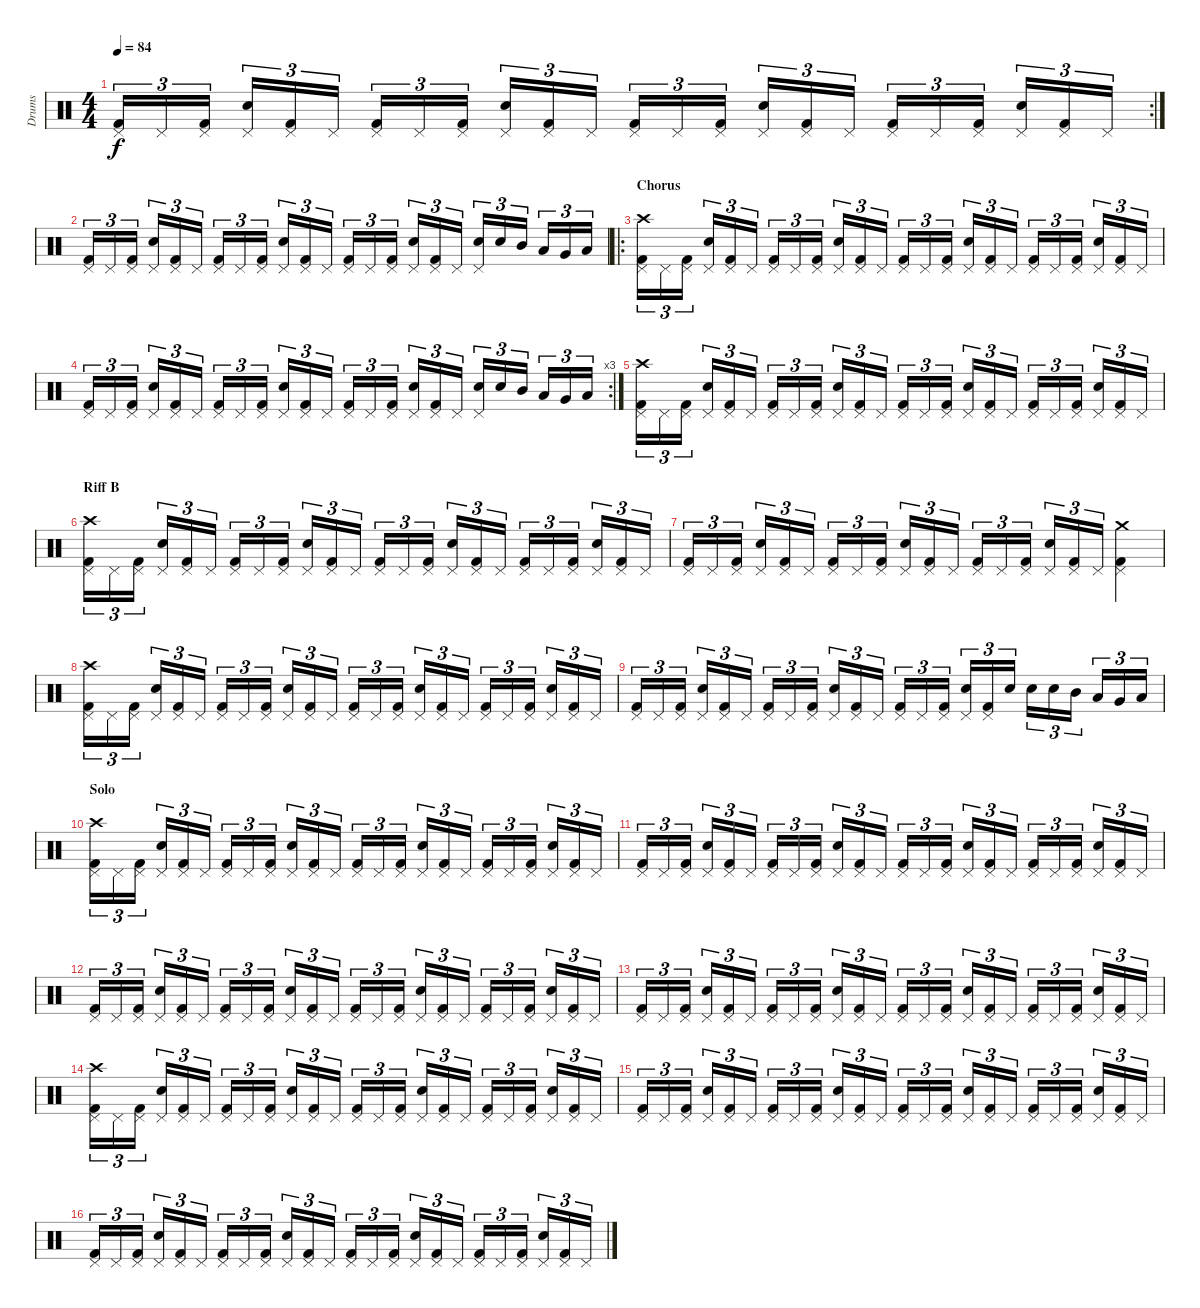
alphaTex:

\track ("Drums" "Drums") {instrument percussion}
\staff {score}
\articulation defaults
\rc 2
\ts (4 4)
\tempo 84
\clef neutral
\ks c
("Kick (hit) 2" "Pedal Hi-Hat (hit)").16{tu (3 2) dy f} "Pedal Hi-Hat (hit)".16{tu (3 2)} ("Kick (hit) 2" "Pedal Hi-Hat (hit)").16{tu (3 2)} ("Snare (hit) 2" "Pedal Hi-Hat (hit)").16{tu (3 2)} ("Kick (hit) 2" "Pedal Hi-Hat (hit)").16{tu (3 2)} "Pedal Hi-Hat (hit)".16{tu (3 2)} ("Kick (hit) 2" "Pedal Hi-Hat (hit)").16{tu (3 2)} "Pedal Hi-Hat (hit)".16{tu (3 2)} ("Kick (hit) 2" "Pedal Hi-Hat (hit)").16{tu (3 2)} ("Snare (hit) 2" "Pedal Hi-Hat (hit)").16{tu (3 2)} ("Kick (hit) 2" "Pedal Hi-Hat (hit)").16{tu (3 2)} "Pedal Hi-Hat (hit)".16{tu (3 2)} ("Kick (hit) 2" "Pedal Hi-Hat (hit)").16{tu (3 2)} "Pedal Hi-Hat (hit)".16{tu (3 2)} ("Kick (hit) 2" "Pedal Hi-Hat (hit)").16{tu (3 2)} ("Snare (hit) 2" "Pedal Hi-Hat (hit)").16{tu (3 2)} ("Kick (hit) 2" "Pedal Hi-Hat (hit)").16{tu (3 2)} "Pedal Hi-Hat (hit)".16{tu (3 2)} ("Kick (hit) 2" "Pedal Hi-Hat (hit)").16{tu (3 2)} "Pedal Hi-Hat (hit)".16{tu (3 2)} ("Kick (hit) 2" "Pedal Hi-Hat (hit)").16{tu (3 2)} ("Snare (hit) 2" "Pedal Hi-Hat (hit)").16{tu (3 2)} ("Kick (hit) 2" "Pedal Hi-Hat (hit)").16{tu (3 2)} "Pedal Hi-Hat (hit)".16{tu (3 2)} |
("Kick (hit) 2" "Pedal Hi-Hat (hit)").16{tu (3 2)} "Pedal Hi-Hat (hit)".16{tu (3 2)} ("Kick (hit) 2" "Pedal Hi-Hat (hit)").16{tu (3 2)} ("Snare (hit) 2" "Pedal Hi-Hat (hit)").16{tu (3 2)} ("Kick (hit) 2" "Pedal Hi-Hat (hit)").16{tu (3 2)} "Pedal Hi-Hat (hit)".16{tu (3 2)} ("Kick (hit) 2" "Pedal Hi-Hat (hit)").16{tu (3 2)} "Pedal Hi-Hat (hit)".16{tu (3 2)} ("Kick (hit) 2" "Pedal Hi-Hat (hit)").16{tu (3 2)} ("Snare (hit) 2" "Pedal Hi-Hat (hit)").16{tu (3 2)} ("Kick (hit) 2" "Pedal Hi-Hat (hit)").16{tu (3 2)} "Pedal Hi-Hat (hit)".16{tu (3 2)} ("Kick (hit) 2" "Pedal Hi-Hat (hit)").16{tu (3 2)} "Pedal Hi-Hat (hit)".16{tu (3 2)} ("Kick (hit) 2" "Pedal Hi-Hat (hit)").16{tu (3 2)} ("Snare (hit) 2" "Pedal Hi-Hat (hit)").16{tu (3 2)} ("Kick (hit) 2" "Pedal Hi-Hat (hit)").16{tu (3 2)} "Pedal Hi-Hat (hit)".16{tu (3 2)} ("Snare (hit) 2" "Pedal Hi-Hat (hit)").16{tu (3 2)} "Snare (hit) 2".16{tu (3 2)} "Mid Tom (hit)".16{tu (3 2)} "Low Tom (hit)".16{tu (3 2)} "Very Low Tom (hit)".16{tu (3 2)} "Low Floor Tom (hit)".16{tu (3 2)} |
\ro
\section ("" "Chorus")
("Kick (hit) 2" "Pedal Hi-Hat (hit)" "Crash high (hit)").16{tu (3 2)} "Pedal Hi-Hat (hit)".16{tu (3 2)} ("Kick (hit) 2" "Pedal Hi-Hat (hit)").16{tu (3 2)} ("Snare (hit) 2" "Pedal Hi-Hat (hit)").16{tu (3 2)} ("Kick (hit) 2" "Pedal Hi-Hat (hit)").16{tu (3 2)} "Pedal Hi-Hat (hit)".16{tu (3 2)} ("Kick (hit) 2" "Pedal Hi-Hat (hit)").16{tu (3 2)} "Pedal Hi-Hat (hit)".16{tu (3 2)} ("Kick (hit) 2" "Pedal Hi-Hat (hit)").16{tu (3 2)} ("Snare (hit) 2" "Pedal Hi-Hat (hit)").16{tu (3 2)} ("Kick (hit) 2" "Pedal Hi-Hat (hit)").16{tu (3 2)} "Pedal Hi-Hat (hit)".16{tu (3 2)} ("Kick (hit) 2" "Pedal Hi-Hat (hit)").16{tu (3 2)} "Pedal Hi-Hat (hit)".16{tu (3 2)} ("Kick (hit) 2" "Pedal Hi-Hat (hit)").16{tu (3 2)} ("Snare (hit) 2" "Pedal Hi-Hat (hit)").16{tu (3 2)} ("Kick (hit) 2" "Pedal Hi-Hat (hit)").16{tu (3 2)} "Pedal Hi-Hat (hit)".16{tu (3 2)} ("Kick (hit) 2" "Pedal Hi-Hat (hit)").16{tu (3 2)} "Pedal Hi-Hat (hit)".16{tu (3 2)} ("Kick (hit) 2" "Pedal Hi-Hat (hit)").16{tu (3 2)} ("Snare (hit) 2" "Pedal Hi-Hat (hit)").16{tu (3 2)} ("Kick (hit) 2" "Pedal Hi-Hat (hit)").16{tu (3 2)} "Pedal Hi-Hat (hit)".16{tu (3 2)} |
\rc 3
("Kick (hit) 2" "Pedal Hi-Hat (hit)").16{tu (3 2)} "Pedal Hi-Hat (hit)".16{tu (3 2)} ("Kick (hit) 2" "Pedal Hi-Hat (hit)").16{tu (3 2)} ("Snare (hit) 2" "Pedal Hi-Hat (hit)").16{tu (3 2)} ("Kick (hit) 2" "Pedal Hi-Hat (hit)").16{tu (3 2)} "Pedal Hi-Hat (hit)".16{tu (3 2)} ("Kick (hit) 2" "Pedal Hi-Hat (hit)").16{tu (3 2)} "Pedal Hi-Hat (hit)".16{tu (3 2)} ("Kick (hit) 2" "Pedal Hi-Hat (hit)").16{tu (3 2)} ("Snare (hit) 2" "Pedal Hi-Hat (hit)").16{tu (3 2)} ("Kick (hit) 2" "Pedal Hi-Hat (hit)").16{tu (3 2)} "Pedal Hi-Hat (hit)".16{tu (3 2)} ("Kick (hit) 2" "Pedal Hi-Hat (hit)").16{tu (3 2)} "Pedal Hi-Hat (hit)".16{tu (3 2)} ("Kick (hit) 2" "Pedal Hi-Hat (hit)").16{tu (3 2)} ("Snare (hit) 2" "Pedal Hi-Hat (hit)").16{tu (3 2)} ("Kick (hit) 2" "Pedal Hi-Hat (hit)").16{tu (3 2)} "Pedal Hi-Hat (hit)".16{tu (3 2)} ("Snare (hit) 2" "Pedal Hi-Hat (hit)").16{tu (3 2)} "Snare (hit) 2".16{tu (3 2)} "Mid Tom (hit)".16{tu (3 2)} "Low Tom (hit)".16{tu (3 2)} "Very Low Tom (hit)".16{tu (3 2)} "Low Floor Tom (hit)".16{tu (3 2)} |
("Kick (hit) 2" "Pedal Hi-Hat (hit)" "Crash high (hit)").16{tu (3 2)} "Pedal Hi-Hat (hit)".16{tu (3 2)} ("Kick (hit) 2" "Pedal Hi-Hat (hit)").16{tu (3 2)} ("Snare (hit) 2" "Pedal Hi-Hat (hit)").16{tu (3 2)} ("Kick (hit) 2" "Pedal Hi-Hat (hit)").16{tu (3 2)} "Pedal Hi-Hat (hit)".16{tu (3 2)} ("Kick (hit) 2" "Pedal Hi-Hat (hit)").16{tu (3 2)} "Pedal Hi-Hat (hit)".16{tu (3 2)} ("Kick (hit) 2" "Pedal Hi-Hat (hit)").16{tu (3 2)} ("Snare (hit) 2" "Pedal Hi-Hat (hit)").16{tu (3 2)} ("Kick (hit) 2" "Pedal Hi-Hat (hit)").16{tu (3 2)} "Pedal Hi-Hat (hit)".16{tu (3 2)} ("Kick (hit) 2" "Pedal Hi-Hat (hit)").16{tu (3 2)} "Pedal Hi-Hat (hit)".16{tu (3 2)} ("Kick (hit) 2" "Pedal Hi-Hat (hit)").16{tu (3 2)} ("Snare (hit) 2" "Pedal Hi-Hat (hit)").16{tu (3 2)} ("Kick (hit) 2" "Pedal Hi-Hat (hit)").16{tu (3 2)} "Pedal Hi-Hat (hit)".16{tu (3 2)} ("Kick (hit) 2" "Pedal Hi-Hat (hit)").16{tu (3 2)} "Pedal Hi-Hat (hit)".16{tu (3 2)} ("Kick (hit) 2" "Pedal Hi-Hat (hit)").16{tu (3 2)} ("Snare (hit) 2" "Pedal Hi-Hat (hit)").16{tu (3 2)} ("Kick (hit) 2" "Pedal Hi-Hat (hit)").16{tu (3 2)} "Pedal Hi-Hat (hit)".16{tu (3 2)} |
\section ("" "Riff B")
("Kick (hit) 2" "Pedal Hi-Hat (hit)" "Crash high (hit)").16{tu (3 2)} "Pedal Hi-Hat (hit)".16{tu (3 2)} ("Kick (hit) 2" "Pedal Hi-Hat (hit)").16{tu (3 2)} ("Snare (hit) 2" "Pedal Hi-Hat (hit)").16{tu (3 2)} ("Kick (hit) 2" "Pedal Hi-Hat (hit)").16{tu (3 2)} "Pedal Hi-Hat (hit)".16{tu (3 2)} ("Kick (hit) 2" "Pedal Hi-Hat (hit)").16{tu (3 2)} "Pedal Hi-Hat (hit)".16{tu (3 2)} ("Kick (hit) 2" "Pedal Hi-Hat (hit)").16{tu (3 2)} ("Snare (hit) 2" "Pedal Hi-Hat (hit)").16{tu (3 2)} ("Kick (hit) 2" "Pedal Hi-Hat (hit)").16{tu (3 2)} "Pedal Hi-Hat (hit)".16{tu (3 2)} ("Kick (hit) 2" "Pedal Hi-Hat (hit)").16{tu (3 2)} "Pedal Hi-Hat (hit)".16{tu (3 2)} ("Kick (hit) 2" "Pedal Hi-Hat (hit)").16{tu (3 2)} ("Snare (hit) 2" "Pedal Hi-Hat (hit)").16{tu (3 2)} ("Kick (hit) 2" "Pedal Hi-Hat (hit)").16{tu (3 2)} "Pedal Hi-Hat (hit)".16{tu (3 2)} ("Kick (hit) 2" "Pedal Hi-Hat (hit)").16{tu (3 2)} "Pedal Hi-Hat (hit)".16{tu (3 2)} ("Kick (hit) 2" "Pedal Hi-Hat (hit)").16{tu (3 2)} ("Snare (hit) 2" "Pedal Hi-Hat (hit)").16{tu (3 2)} ("Kick (hit) 2" "Pedal Hi-Hat (hit)").16{tu (3 2)} "Pedal Hi-Hat (hit)".16{tu (3 2)} |
("Kick (hit) 2" "Pedal Hi-Hat (hit)").16{tu (3 2)} "Pedal Hi-Hat (hit)".16{tu (3 2)} ("Kick (hit) 2" "Pedal Hi-Hat (hit)").16{tu (3 2)} ("Snare (hit) 2" "Pedal Hi-Hat (hit)").16{tu (3 2)} ("Kick (hit) 2" "Pedal Hi-Hat (hit)").16{tu (3 2)} "Pedal Hi-Hat (hit)".16{tu (3 2)} ("Kick (hit) 2" "Pedal Hi-Hat (hit)").16{tu (3 2)} "Pedal Hi-Hat (hit)".16{tu (3 2)} ("Kick (hit) 2" "Pedal Hi-Hat (hit)").16{tu (3 2)} ("Snare (hit) 2" "Pedal Hi-Hat (hit)").16{tu (3 2)} ("Kick (hit) 2" "Pedal Hi-Hat (hit)").16{tu (3 2)} "Pedal Hi-Hat (hit)".16{tu (3 2)} ("Kick (hit) 2" "Pedal Hi-Hat (hit)").16{tu (3 2)} "Pedal Hi-Hat (hit)".16{tu (3 2)} ("Kick (hit) 2" "Pedal Hi-Hat (hit)").16{tu (3 2)} ("Snare (hit) 2" "Pedal Hi-Hat (hit)").16{tu (3 2)} ("Kick (hit) 2" "Pedal Hi-Hat (hit)").16{tu (3 2)} "Pedal Hi-Hat (hit)".16{tu (3 2)} ("Kick (hit) 2" "Pedal Hi-Hat (hit)" "Crash medium (hit)").4 |
("Kick (hit) 2" "Pedal Hi-Hat (hit)" "Crash high (hit)").16{tu (3 2)} "Pedal Hi-Hat (hit)".16{tu (3 2)} ("Kick (hit) 2" "Pedal Hi-Hat (hit)").16{tu (3 2)} ("Snare (hit) 2" "Pedal Hi-Hat (hit)").16{tu (3 2)} ("Kick (hit) 2" "Pedal Hi-Hat (hit)").16{tu (3 2)} "Pedal Hi-Hat (hit)".16{tu (3 2)} ("Kick (hit) 2" "Pedal Hi-Hat (hit)").16{tu (3 2)} "Pedal Hi-Hat (hit)".16{tu (3 2)} ("Kick (hit) 2" "Pedal Hi-Hat (hit)").16{tu (3 2)} ("Snare (hit) 2" "Pedal Hi-Hat (hit)").16{tu (3 2)} ("Kick (hit) 2" "Pedal Hi-Hat (hit)").16{tu (3 2)} "Pedal Hi-Hat (hit)".16{tu (3 2)} ("Kick (hit) 2" "Pedal Hi-Hat (hit)").16{tu (3 2)} "Pedal Hi-Hat (hit)".16{tu (3 2)} ("Kick (hit) 2" "Pedal Hi-Hat (hit)").16{tu (3 2)} ("Snare (hit) 2" "Pedal Hi-Hat (hit)").16{tu (3 2)} ("Kick (hit) 2" "Pedal Hi-Hat (hit)").16{tu (3 2)} "Pedal Hi-Hat (hit)".16{tu (3 2)} ("Kick (hit) 2" "Pedal Hi-Hat (hit)").16{tu (3 2)} "Pedal Hi-Hat (hit)".16{tu (3 2)} ("Kick (hit) 2" "Pedal Hi-Hat (hit)").16{tu (3 2)} ("Snare (hit) 2" "Pedal Hi-Hat (hit)").16{tu (3 2)} ("Kick (hit) 2" "Pedal Hi-Hat (hit)").16{tu (3 2)} "Pedal Hi-Hat (hit)".16{tu (3 2)} |
("Kick (hit) 2" "Pedal Hi-Hat (hit)").16{tu (3 2)} "Pedal Hi-Hat (hit)".16{tu (3 2)} ("Kick (hit) 2" "Pedal Hi-Hat (hit)").16{tu (3 2)} ("Snare (hit) 2" "Pedal Hi-Hat (hit)").16{tu (3 2)} ("Kick (hit) 2" "Pedal Hi-Hat (hit)").16{tu (3 2)} "Pedal Hi-Hat (hit)".16{tu (3 2)} ("Kick (hit) 2" "Pedal Hi-Hat (hit)").16{tu (3 2)} "Pedal Hi-Hat (hit)".16{tu (3 2)} ("Kick (hit) 2" "Pedal Hi-Hat (hit)").16{tu (3 2)} ("Snare (hit) 2" "Pedal Hi-Hat (hit)").16{tu (3 2)} ("Kick (hit) 2" "Pedal Hi-Hat (hit)").16{tu (3 2)} "Pedal Hi-Hat (hit)".16{tu (3 2)} ("Kick (hit) 2" "Pedal Hi-Hat (hit)").16{tu (3 2)} "Pedal Hi-Hat (hit)".16{tu (3 2)} ("Kick (hit) 2" "Pedal Hi-Hat (hit)").16{tu (3 2)} ("Snare (hit) 2" "Pedal Hi-Hat (hit)").16{tu (3 2)} ("Kick (hit) 2" "Pedal Hi-Hat (hit)").16{tu (3 2)} "Snare (hit) 2".16{tu (3 2)} "Snare (hit) 2".16{tu (3 2)} "Snare (hit) 2".16{tu (3 2)} "Mid Tom (hit)".16{tu (3 2)} "Low Tom (hit)".16{tu (3 2)} "Very Low Tom (hit)".16{tu (3 2)} "Low Floor Tom (hit)".16{tu (3 2)} |
\section ("" "Solo")
("Kick (hit) 2" "Pedal Hi-Hat (hit)" "Crash high (hit)").16{tu (3 2)} "Pedal Hi-Hat (hit)".16{tu (3 2)} ("Kick (hit) 2" "Pedal Hi-Hat (hit)").16{tu (3 2)} ("Snare (hit) 2" "Pedal Hi-Hat (hit)").16{tu (3 2)} ("Kick (hit) 2" "Pedal Hi-Hat (hit)").16{tu (3 2)} "Pedal Hi-Hat (hit)".16{tu (3 2)} ("Kick (hit) 2" "Pedal Hi-Hat (hit)").16{tu (3 2)} "Pedal Hi-Hat (hit)".16{tu (3 2)} ("Kick (hit) 2" "Pedal Hi-Hat (hit)").16{tu (3 2)} ("Snare (hit) 2" "Pedal Hi-Hat (hit)").16{tu (3 2)} ("Kick (hit) 2" "Pedal Hi-Hat (hit)").16{tu (3 2)} "Pedal Hi-Hat (hit)".16{tu (3 2)} ("Kick (hit) 2" "Pedal Hi-Hat (hit)").16{tu (3 2)} "Pedal Hi-Hat (hit)".16{tu (3 2)} ("Kick (hit) 2" "Pedal Hi-Hat (hit)").16{tu (3 2)} ("Snare (hit) 2" "Pedal Hi-Hat (hit)").16{tu (3 2)} ("Kick (hit) 2" "Pedal Hi-Hat (hit)").16{tu (3 2)} "Pedal Hi-Hat (hit)".16{tu (3 2)} ("Kick (hit) 2" "Pedal Hi-Hat (hit)").16{tu (3 2)} "Pedal Hi-Hat (hit)".16{tu (3 2)} ("Kick (hit) 2" "Pedal Hi-Hat (hit)").16{tu (3 2)} ("Snare (hit) 2" "Pedal Hi-Hat (hit)").16{tu (3 2)} ("Kick (hit) 2" "Pedal Hi-Hat (hit)").16{tu (3 2)} "Pedal Hi-Hat (hit)".16{tu (3 2)} |
("Kick (hit) 2" "Pedal Hi-Hat (hit)").16{tu (3 2)} "Pedal Hi-Hat (hit)".16{tu (3 2)} ("Kick (hit) 2" "Pedal Hi-Hat (hit)").16{tu (3 2)} ("Snare (hit) 2" "Pedal Hi-Hat (hit)").16{tu (3 2)} ("Kick (hit) 2" "Pedal Hi-Hat (hit)").16{tu (3 2)} "Pedal Hi-Hat (hit)".16{tu (3 2)} ("Kick (hit) 2" "Pedal Hi-Hat (hit)").16{tu (3 2)} "Pedal Hi-Hat (hit)".16{tu (3 2)} ("Kick (hit) 2" "Pedal Hi-Hat (hit)").16{tu (3 2)} ("Snare (hit) 2" "Pedal Hi-Hat (hit)").16{tu (3 2)} ("Kick (hit) 2" "Pedal Hi-Hat (hit)").16{tu (3 2)} "Pedal Hi-Hat (hit)".16{tu (3 2)} ("Kick (hit) 2" "Pedal Hi-Hat (hit)").16{tu (3 2)} "Pedal Hi-Hat (hit)".16{tu (3 2)} ("Kick (hit) 2" "Pedal Hi-Hat (hit)").16{tu (3 2)} ("Snare (hit) 2" "Pedal Hi-Hat (hit)").16{tu (3 2)} ("Kick (hit) 2" "Pedal Hi-Hat (hit)").16{tu (3 2)} "Pedal Hi-Hat (hit)".16{tu (3 2)} ("Kick (hit) 2" "Pedal Hi-Hat (hit)").16{tu (3 2)} "Pedal Hi-Hat (hit)".16{tu (3 2)} ("Kick (hit) 2" "Pedal Hi-Hat (hit)").16{tu (3 2)} ("Snare (hit) 2" "Pedal Hi-Hat (hit)").16{tu (3 2)} ("Kick (hit) 2" "Pedal Hi-Hat (hit)").16{tu (3 2)} "Pedal Hi-Hat (hit)".16{tu (3 2)} |
("Kick (hit) 2" "Pedal Hi-Hat (hit)").16{tu (3 2)} "Pedal Hi-Hat (hit)".16{tu (3 2)} ("Kick (hit) 2" "Pedal Hi-Hat (hit)").16{tu (3 2)} ("Snare (hit) 2" "Pedal Hi-Hat (hit)").16{tu (3 2)} ("Kick (hit) 2" "Pedal Hi-Hat (hit)").16{tu (3 2)} "Pedal Hi-Hat (hit)".16{tu (3 2)} ("Kick (hit) 2" "Pedal Hi-Hat (hit)").16{tu (3 2)} "Pedal Hi-Hat (hit)".16{tu (3 2)} ("Kick (hit) 2" "Pedal Hi-Hat (hit)").16{tu (3 2)} ("Snare (hit) 2" "Pedal Hi-Hat (hit)").16{tu (3 2)} ("Kick (hit) 2" "Pedal Hi-Hat (hit)").16{tu (3 2)} "Pedal Hi-Hat (hit)".16{tu (3 2)} ("Kick (hit) 2" "Pedal Hi-Hat (hit)").16{tu (3 2)} "Pedal Hi-Hat (hit)".16{tu (3 2)} ("Kick (hit) 2" "Pedal Hi-Hat (hit)").16{tu (3 2)} ("Snare (hit) 2" "Pedal Hi-Hat (hit)").16{tu (3 2)} ("Kick (hit) 2" "Pedal Hi-Hat (hit)").16{tu (3 2)} "Pedal Hi-Hat (hit)".16{tu (3 2)} ("Kick (hit) 2" "Pedal Hi-Hat (hit)").16{tu (3 2)} "Pedal Hi-Hat (hit)".16{tu (3 2)} ("Kick (hit) 2" "Pedal Hi-Hat (hit)").16{tu (3 2)} ("Snare (hit) 2" "Pedal Hi-Hat (hit)").16{tu (3 2)} ("Kick (hit) 2" "Pedal Hi-Hat (hit)").16{tu (3 2)} "Pedal Hi-Hat (hit)".16{tu (3 2)} |
("Kick (hit) 2" "Pedal Hi-Hat (hit)").16{tu (3 2)} "Pedal Hi-Hat (hit)".16{tu (3 2)} ("Kick (hit) 2" "Pedal Hi-Hat (hit)").16{tu (3 2)} ("Snare (hit) 2" "Pedal Hi-Hat (hit)").16{tu (3 2)} ("Kick (hit) 2" "Pedal Hi-Hat (hit)").16{tu (3 2)} "Pedal Hi-Hat (hit)".16{tu (3 2)} ("Kick (hit) 2" "Pedal Hi-Hat (hit)").16{tu (3 2)} "Pedal Hi-Hat (hit)".16{tu (3 2)} ("Kick (hit) 2" "Pedal Hi-Hat (hit)").16{tu (3 2)} ("Snare (hit) 2" "Pedal Hi-Hat (hit)").16{tu (3 2)} ("Kick (hit) 2" "Pedal Hi-Hat (hit)").16{tu (3 2)} "Pedal Hi-Hat (hit)".16{tu (3 2)} ("Kick (hit) 2" "Pedal Hi-Hat (hit)").16{tu (3 2)} "Pedal Hi-Hat (hit)".16{tu (3 2)} ("Kick (hit) 2" "Pedal Hi-Hat (hit)").16{tu (3 2)} ("Snare (hit) 2" "Pedal Hi-Hat (hit)").16{tu (3 2)} ("Kick (hit) 2" "Pedal Hi-Hat (hit)").16{tu (3 2)} "Pedal Hi-Hat (hit)".16{tu (3 2)} ("Kick (hit) 2" "Pedal Hi-Hat (hit)").16{tu (3 2)} "Pedal Hi-Hat (hit)".16{tu (3 2)} ("Kick (hit) 2" "Pedal Hi-Hat (hit)").16{tu (3 2)} ("Snare (hit) 2" "Pedal Hi-Hat (hit)").16{tu (3 2)} ("Kick (hit) 2" "Pedal Hi-Hat (hit)").16{tu (3 2)} "Pedal Hi-Hat (hit)".16{tu (3 2)} |
("Kick (hit) 2" "Pedal Hi-Hat (hit)" "Crash high (hit)").16{tu (3 2)} "Pedal Hi-Hat (hit)".16{tu (3 2)} ("Kick (hit) 2" "Pedal Hi-Hat (hit)").16{tu (3 2)} ("Snare (hit) 2" "Pedal Hi-Hat (hit)").16{tu (3 2)} ("Kick (hit) 2" "Pedal Hi-Hat (hit)").16{tu (3 2)} "Pedal Hi-Hat (hit)".16{tu (3 2)} ("Kick (hit) 2" "Pedal Hi-Hat (hit)").16{tu (3 2)} "Pedal Hi-Hat (hit)".16{tu (3 2)} ("Kick (hit) 2" "Pedal Hi-Hat (hit)").16{tu (3 2)} ("Snare (hit) 2" "Pedal Hi-Hat (hit)").16{tu (3 2)} ("Kick (hit) 2" "Pedal Hi-Hat (hit)").16{tu (3 2)} "Pedal Hi-Hat (hit)".16{tu (3 2)} ("Kick (hit) 2" "Pedal Hi-Hat (hit)").16{tu (3 2)} "Pedal Hi-Hat (hit)".16{tu (3 2)} ("Kick (hit) 2" "Pedal Hi-Hat (hit)").16{tu (3 2)} ("Snare (hit) 2" "Pedal Hi-Hat (hit)").16{tu (3 2)} ("Kick (hit) 2" "Pedal Hi-Hat (hit)").16{tu (3 2)} "Pedal Hi-Hat (hit)".16{tu (3 2)} ("Kick (hit) 2" "Pedal Hi-Hat (hit)").16{tu (3 2)} "Pedal Hi-Hat (hit)".16{tu (3 2)} ("Kick (hit) 2" "Pedal Hi-Hat (hit)").16{tu (3 2)} ("Snare (hit) 2" "Pedal Hi-Hat (hit)").16{tu (3 2)} ("Kick (hit) 2" "Pedal Hi-Hat (hit)").16{tu (3 2)} "Pedal Hi-Hat (hit)".16{tu (3 2)} |
("Kick (hit) 2" "Pedal Hi-Hat (hit)").16{tu (3 2)} "Pedal Hi-Hat (hit)".16{tu (3 2)} ("Kick (hit) 2" "Pedal Hi-Hat (hit)").16{tu (3 2)} ("Snare (hit) 2" "Pedal Hi-Hat (hit)").16{tu (3 2)} ("Kick (hit) 2" "Pedal Hi-Hat (hit)").16{tu (3 2)} "Pedal Hi-Hat (hit)".16{tu (3 2)} ("Kick (hit) 2" "Pedal Hi-Hat (hit)").16{tu (3 2)} "Pedal Hi-Hat (hit)".16{tu (3 2)} ("Kick (hit) 2" "Pedal Hi-Hat (hit)").16{tu (3 2)} ("Snare (hit) 2" "Pedal Hi-Hat (hit)").16{tu (3 2)} ("Kick (hit) 2" "Pedal Hi-Hat (hit)").16{tu (3 2)} "Pedal Hi-Hat (hit)".16{tu (3 2)} ("Kick (hit) 2" "Pedal Hi-Hat (hit)").16{tu (3 2)} "Pedal Hi-Hat (hit)".16{tu (3 2)} ("Kick (hit) 2" "Pedal Hi-Hat (hit)").16{tu (3 2)} ("Snare (hit) 2" "Pedal Hi-Hat (hit)").16{tu (3 2)} ("Kick (hit) 2" "Pedal Hi-Hat (hit)").16{tu (3 2)} "Pedal Hi-Hat (hit)".16{tu (3 2)} ("Kick (hit) 2" "Pedal Hi-Hat (hit)").16{tu (3 2)} "Pedal Hi-Hat (hit)".16{tu (3 2)} ("Kick (hit) 2" "Pedal Hi-Hat (hit)").16{tu (3 2)} ("Snare (hit) 2" "Pedal Hi-Hat (hit)").16{tu (3 2)} ("Kick (hit) 2" "Pedal Hi-Hat (hit)").16{tu (3 2)} "Pedal Hi-Hat (hit)".16{tu (3 2)} |
("Kick (hit) 2" "Pedal Hi-Hat (hit)").16{tu (3 2)} "Pedal Hi-Hat (hit)".16{tu (3 2)} ("Kick (hit) 2" "Pedal Hi-Hat (hit)").16{tu (3 2)} ("Snare (hit) 2" "Pedal Hi-Hat (hit)").16{tu (3 2)} ("Kick (hit) 2" "Pedal Hi-Hat (hit)").16{tu (3 2)} "Pedal Hi-Hat (hit)".16{tu (3 2)} ("Kick (hit) 2" "Pedal Hi-Hat (hit)").16{tu (3 2)} "Pedal Hi-Hat (hit)".16{tu (3 2)} ("Kick (hit) 2" "Pedal Hi-Hat (hit)").16{tu (3 2)} ("Snare (hit) 2" "Pedal Hi-Hat (hit)").16{tu (3 2)} ("Kick (hit) 2" "Pedal Hi-Hat (hit)").16{tu (3 2)} "Pedal Hi-Hat (hit)".16{tu (3 2)} ("Kick (hit) 2" "Pedal Hi-Hat (hit)").16{tu (3 2)} "Pedal Hi-Hat (hit)".16{tu (3 2)} ("Kick (hit) 2" "Pedal Hi-Hat (hit)").16{tu (3 2)} ("Snare (hit) 2" "Pedal Hi-Hat (hit)").16{tu (3 2)} ("Kick (hit) 2" "Pedal Hi-Hat (hit)").16{tu (3 2)} "Pedal Hi-Hat (hit)".16{tu (3 2)} ("Kick (hit) 2" "Pedal Hi-Hat (hit)").16{tu (3 2)} "Pedal Hi-Hat (hit)".16{tu (3 2)} ("Kick (hit) 2" "Pedal Hi-Hat (hit)").16{tu (3 2)} ("Snare (hit) 2" "Pedal Hi-Hat (hit)").16{tu (3 2)} ("Kick (hit) 2" "Pedal Hi-Hat (hit)").16{tu (3 2)} "Pedal Hi-Hat (hit)".16{tu (3 2)}
